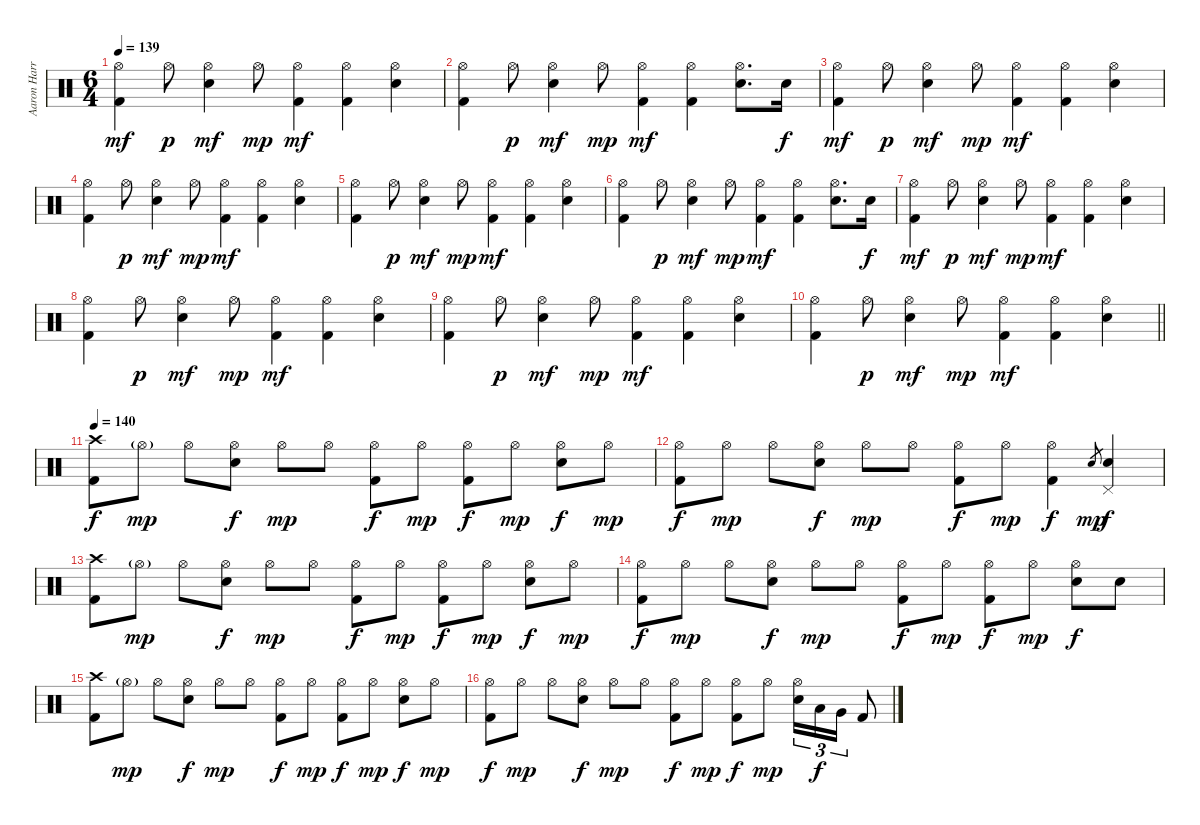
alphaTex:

\track ("Aaron Harris" "Aaron Harr") {instrument percussion}
\staff {score}
\articulation defaults
\ts (6 4)
\tempo 139
\clef neutral
\ks c
("Hi-Hat (open)" "Kick (hit) 2").4{dy mf} "Hi-Hat (open)".8{dy p} ("Hi-Hat (open)" "Electric Snare (hit)").4{dy mf} "Hi-Hat (open)".8{dy mp} ("Hi-Hat (open)" "Kick (hit) 2").4{dy mf} ("Hi-Hat (open)" "Kick (hit) 2").4 ("Hi-Hat (open)" "Electric Snare (hit)").4 |
("Hi-Hat (open)" "Kick (hit) 2").4 "Hi-Hat (open)".8{dy p} ("Hi-Hat (open)" "Electric Snare (hit)").4{dy mf} "Hi-Hat (open)".8{dy mp} ("Hi-Hat (open)" "Kick (hit) 2").4{dy mf} ("Hi-Hat (open)" "Kick (hit) 2").4 ("Hi-Hat (open)" "Electric Snare (hit)").8{d} "Electric Snare (hit)".16{dy f} |
("Hi-Hat (open)" "Kick (hit) 2").4{dy mf} "Hi-Hat (open)".8{dy p} ("Hi-Hat (open)" "Electric Snare (hit)").4{dy mf} "Hi-Hat (open)".8{dy mp} ("Hi-Hat (open)" "Kick (hit) 2").4{dy mf} ("Hi-Hat (open)" "Kick (hit) 2").4 ("Hi-Hat (open)" "Electric Snare (hit)").4 |
("Hi-Hat (open)" "Kick (hit) 2").4 "Hi-Hat (open)".8{dy p} ("Hi-Hat (open)" "Electric Snare (hit)").4{dy mf} "Hi-Hat (open)".8{dy mp} ("Hi-Hat (open)" "Kick (hit) 2").4{dy mf} ("Hi-Hat (open)" "Kick (hit) 2").4 ("Hi-Hat (open)" "Electric Snare (hit)").4 |
("Hi-Hat (open)" "Kick (hit) 2").4 "Hi-Hat (open)".8{dy p} ("Hi-Hat (open)" "Electric Snare (hit)").4{dy mf} "Hi-Hat (open)".8{dy mp} ("Hi-Hat (open)" "Kick (hit) 2").4{dy mf} ("Hi-Hat (open)" "Kick (hit) 2").4 ("Hi-Hat (open)" "Electric Snare (hit)").4 |
("Hi-Hat (open)" "Kick (hit) 2").4 "Hi-Hat (open)".8{dy p} ("Hi-Hat (open)" "Electric Snare (hit)").4{dy mf} "Hi-Hat (open)".8{dy mp} ("Hi-Hat (open)" "Kick (hit) 2").4{dy mf} ("Hi-Hat (open)" "Kick (hit) 2").4 ("Hi-Hat (open)" "Electric Snare (hit)").8{d} "Electric Snare (hit)".16{dy f} |
("Hi-Hat (open)" "Kick (hit) 2").4{dy mf} "Hi-Hat (open)".8{dy p} ("Hi-Hat (open)" "Electric Snare (hit)").4{dy mf} "Hi-Hat (open)".8{dy mp} ("Hi-Hat (open)" "Kick (hit) 2").4{dy mf} ("Hi-Hat (open)" "Kick (hit) 2").4 ("Hi-Hat (open)" "Electric Snare (hit)").4 |
("Hi-Hat (open)" "Kick (hit) 2").4 "Hi-Hat (open)".8{dy p} ("Hi-Hat (open)" "Electric Snare (hit)").4{dy mf} "Hi-Hat (open)".8{dy mp} ("Hi-Hat (open)" "Kick (hit) 2").4{dy mf} ("Hi-Hat (open)" "Kick (hit) 2").4 ("Hi-Hat (open)" "Electric Snare (hit)").4 |
("Hi-Hat (open)" "Kick (hit) 2").4 "Hi-Hat (open)".8{dy p} ("Hi-Hat (open)" "Electric Snare (hit)").4{dy mf} "Hi-Hat (open)".8{dy mp} ("Hi-Hat (open)" "Kick (hit) 2").4{dy mf} ("Hi-Hat (open)" "Kick (hit) 2").4 ("Hi-Hat (open)" "Electric Snare (hit)").4 |
\barLineRight lightlight
("Hi-Hat (open)" "Kick (hit) 2").4 "Hi-Hat (open)".8{dy p} ("Hi-Hat (open)" "Electric Snare (hit)").4{dy mf} "Hi-Hat (open)".8{dy mp} ("Hi-Hat (open)" "Kick (hit) 2").4{dy mf} ("Hi-Hat (open)" "Kick (hit) 2").4 ("Hi-Hat (open)" "Electric Snare (hit)").4 |
\section ("" "")
\tempo 140
("Crash high (hit)" "Kick (hit) 2").8{dy f} "Hi-Hat (open)"{g}.8{dy mp} "Hi-Hat (open)".8 ("Hi-Hat (open)" "Electric Snare (hit)").8{dy f} "Hi-Hat (open)".8{dy mp} "Hi-Hat (open)".8 ("Hi-Hat (open)" "Kick (hit) 2").8{dy f} "Hi-Hat (open)".8{dy mp} ("Hi-Hat (open)" "Kick (hit) 2").8{dy f} "Hi-Hat (open)".8{dy mp} ("Hi-Hat (open)" "Electric Snare (hit)").8{dy f} "Hi-Hat (open)".8{dy mp} |
("Hi-Hat (open)" "Kick (hit) 2").8{dy f} "Hi-Hat (open)".8{dy mp} "Hi-Hat (open)".8 ("Hi-Hat (open)" "Electric Snare (hit)").8{dy f} "Hi-Hat (open)".8{dy mp} "Hi-Hat (open)".8 ("Hi-Hat (open)" "Kick (hit) 2").8{dy f} "Hi-Hat (open)".8{dy mp} ("Hi-Hat (open)" "Kick (hit) 2").4{dy f} "Electric Snare (hit)".8{gr dy mp} ("Pedal Hi-Hat (hit)" "Electric Snare (hit)").4{dy f} |
("Crash high (hit)" "Kick (hit) 2").8 "Hi-Hat (open)"{g}.8{dy mp} "Hi-Hat (open)".8 ("Hi-Hat (open)" "Electric Snare (hit)").8{dy f} "Hi-Hat (open)".8{dy mp} "Hi-Hat (open)".8 ("Hi-Hat (open)" "Kick (hit) 2").8{dy f} "Hi-Hat (open)".8{dy mp} ("Hi-Hat (open)" "Kick (hit) 2").8{dy f} "Hi-Hat (open)".8{dy mp} ("Hi-Hat (open)" "Electric Snare (hit)").8{dy f} "Hi-Hat (open)".8{dy mp} |
("Hi-Hat (open)" "Kick (hit) 2").8{dy f} "Hi-Hat (open)".8{dy mp} "Hi-Hat (open)".8 ("Hi-Hat (open)" "Electric Snare (hit)").8{dy f} "Hi-Hat (open)".8{dy mp} "Hi-Hat (open)".8 ("Hi-Hat (open)" "Kick (hit) 2").8{dy f} "Hi-Hat (open)".8{dy mp} ("Hi-Hat (open)" "Kick (hit) 2").8{dy f} "Hi-Hat (open)".8{dy mp} ("Hi-Hat (open)" "Electric Snare (hit)").8{dy f} "Electric Snare (hit)".8 |
("Crash high (hit)" "Kick (hit) 2").8 "Hi-Hat (open)"{g}.8{dy mp} "Hi-Hat (open)".8 ("Hi-Hat (open)" "Electric Snare (hit)").8{dy f} "Hi-Hat (open)".8{dy mp} "Hi-Hat (open)".8 ("Hi-Hat (open)" "Kick (hit) 2").8{dy f} "Hi-Hat (open)".8{dy mp} ("Hi-Hat (open)" "Kick (hit) 2").8{dy f} "Hi-Hat (open)".8{dy mp} ("Hi-Hat (open)" "Electric Snare (hit)").8{dy f} "Hi-Hat (open)".8{dy mp} |
("Hi-Hat (open)" "Kick (hit) 2").8{dy f} "Hi-Hat (open)".8{dy mp} "Hi-Hat (open)".8 ("Hi-Hat (open)" "Electric Snare (hit)").8{dy f} "Hi-Hat (open)".8{dy mp} "Hi-Hat (open)".8 ("Hi-Hat (open)" "Kick (hit) 2").8{dy f} "Hi-Hat (open)".8{dy mp} ("Hi-Hat (open)" "Kick (hit) 2").8{dy f} "Hi-Hat (open)".8{dy mp} ("Hi-Hat (open)" "Electric Snare (hit)").16{tu (3 2)} "Low Tom (hit)".16{tu (3 2) dy f} "Very Low Tom (hit)".16{tu (3 2)} "Kick (hit) 2".8
